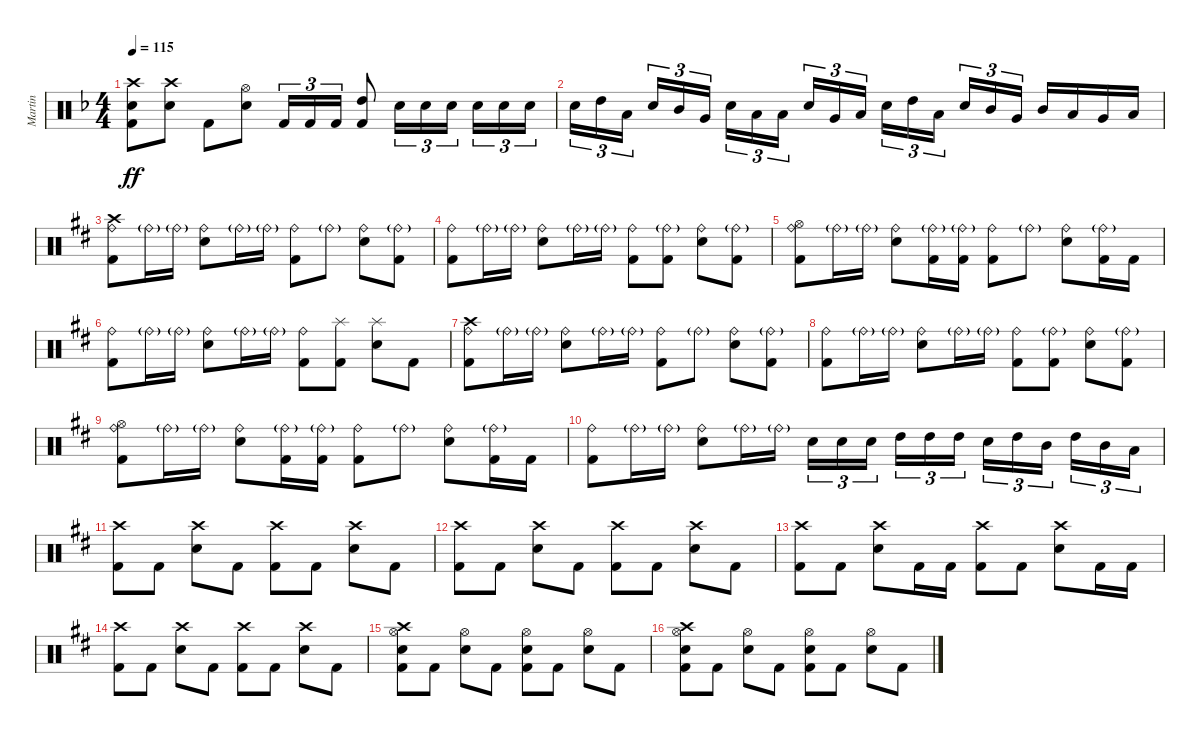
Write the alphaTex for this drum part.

\track ("Martin" "Martin") {instrument percussion}
\staff {score}
\articulation defaults
\ts (4 4)
\tempo 115
\clef neutral
\ks dminor
("Crash high (hit)" "Electric Snare (hit)" "Kick (hit) 2").8{dy ff} ("Crash high (hit)" "Electric Snare (hit)").8 "Kick (hit) 2".8 ("Hi-Hat (open)" "Electric Snare (hit)").8 "Kick (hit) 2".16{tu (3 2)} "Kick (hit) 2".16{tu (3 2)} "Kick (hit) 2".16{tu (3 2)} ("High Tom (hit)" "Kick (hit) 2").8 "Electric Snare (hit)".16{tu (3 2)} "Electric Snare (hit)".16{tu (3 2)} "Electric Snare (hit)".16{tu (3 2) beam splitsecondary} "Electric Snare (hit)".16{tu (3 2)} "Electric Snare (hit)".16{tu (3 2)} "Electric Snare (hit)".16{tu (3 2)} |
"Electric Snare (hit)".16{tu (3 2)} "High Tom (hit)".16{tu (3 2)} "Low Tom (hit)".16{tu (3 2) beam splitsecondary} "Electric Snare (hit)".16{tu (3 2)} "Mid Tom (hit)".16{tu (3 2)} "Very Low Tom (hit)".16{tu (3 2)} "Electric Snare (hit)".16{tu (3 2)} "Low Tom (hit)".16{tu (3 2)} "Low Floor Tom (hit)".16{tu (3 2) beam splitsecondary} "Electric Snare (hit)".16{tu (3 2)} "Very Low Tom (hit)".16{tu (3 2)} "Low Floor Tom (hit)".16{tu (3 2)} "Electric Snare (hit)".16{tu (3 2)} "High Tom (hit)".16{tu (3 2)} "Low Tom (hit)".16{tu (3 2) beam splitsecondary} "Electric Snare (hit)".16{tu (3 2)} "Mid Tom (hit)".16{tu (3 2)} "Very Low Tom (hit)".16{tu (3 2)} "Mid Tom (hit)".16 "Low Tom (hit)".16 "Very Low Tom (hit)".16 "Low Floor Tom (hit)".16 |
\ks bminor
("Crash high (hit)" "Ride (bell)" "Kick (hit) 2").8 "Ride (bell)"{g}.16 "Ride (bell)"{g}.16 ("Ride (bell)" "Electric Snare (hit)").8 "Ride (bell)"{g}.16 "Ride (bell)"{g}.16 ("Ride (bell)" "Kick (hit) 2").8 "Ride (bell)"{g}.8 ("Ride (bell)" "Electric Snare (hit)").8 ("Ride (bell)"{g} "Kick (hit) 2").8 |
("Ride (bell)" "Kick (hit) 2").8 "Ride (bell)"{g}.16 "Ride (bell)"{g}.16 ("Ride (bell)" "Electric Snare (hit)").8 "Ride (bell)"{g}.16 "Ride (bell)"{g}.16 ("Ride (bell)" "Kick (hit) 2").8 ("Ride (bell)"{g} "Kick (hit) 2").8 ("Ride (bell)" "Electric Snare (hit)").8 ("Ride (bell)"{g} "Kick (hit) 2").8 |
("Hi-Hat (open)" "Ride (bell)" "Kick (hit) 2").8 "Ride (bell)"{g}.16 "Ride (bell)"{g}.16 ("Ride (bell)" "Electric Snare (hit)").8 ("Ride (bell)"{g} "Kick (hit) 2").16 ("Ride (bell)"{g} "Kick (hit) 2").16 ("Ride (bell)" "Kick (hit) 2").8 "Ride (bell)"{g}.8 ("Ride (bell)" "Electric Snare (hit)").8 ("Ride (bell)"{g} "Kick (hit) 2").16 "Kick (hit) 2".16 |
("Ride (bell)" "Kick (hit) 2").8 "Ride (bell)"{g}.16 "Ride (bell)"{g}.16 ("Ride (bell)" "Electric Snare (hit)").8 "Ride (bell)"{g}.16 "Ride (bell)"{g}.16 ("Ride (bell)" "Kick (hit) 2").8 ("Splash (hit)" "Kick (hit) 2").8 ("Splash (hit)" "Electric Snare (hit)").8 "Kick (hit) 2".8 |
("Crash high (hit)" "Ride (bell)" "Kick (hit) 2").8 "Ride (bell)"{g}.16 "Ride (bell)"{g}.16 ("Ride (bell)" "Electric Snare (hit)").8 "Ride (bell)"{g}.16 "Ride (bell)"{g}.16 ("Ride (bell)" "Kick (hit) 2").8 "Ride (bell)"{g}.8 ("Ride (bell)" "Electric Snare (hit)").8 ("Ride (bell)"{g} "Kick (hit) 2").8 |
("Ride (bell)" "Kick (hit) 2").8 "Ride (bell)"{g}.16 "Ride (bell)"{g}.16 ("Ride (bell)" "Electric Snare (hit)").8 "Ride (bell)"{g}.16 "Ride (bell)"{g}.16 ("Ride (bell)" "Kick (hit) 2").8 ("Ride (bell)"{g} "Kick (hit) 2").8 ("Ride (bell)" "Electric Snare (hit)").8 ("Ride (bell)"{g} "Kick (hit) 2").8 |
("Hi-Hat (open)" "Ride (bell)" "Kick (hit) 2").8 "Ride (bell)"{g}.16 "Ride (bell)"{g}.16 ("Ride (bell)" "Electric Snare (hit)").8 ("Ride (bell)"{g} "Kick (hit) 2").16 ("Ride (bell)"{g} "Kick (hit) 2").16 ("Ride (bell)" "Kick (hit) 2").8 "Ride (bell)"{g}.8 ("Ride (bell)" "Electric Snare (hit)").8 ("Ride (bell)"{g} "Kick (hit) 2").16 "Kick (hit) 2".16 |
("Ride (bell)" "Kick (hit) 2").8 "Ride (bell)"{g}.16 "Ride (bell)"{g}.16 ("Ride (bell)" "Electric Snare (hit)").8 "Ride (bell)"{g}.16 "Ride (bell)"{g}.16 "Electric Snare (hit)".16{tu (3 2)} "Electric Snare (hit)".16{tu (3 2)} "Electric Snare (hit)".16{tu (3 2) beam splitsecondary} "High Tom (hit)".16{tu (3 2)} "High Tom (hit)".16{tu (3 2)} "High Tom (hit)".16{tu (3 2)} "Electric Snare (hit)".16{tu (3 2)} "High Tom (hit)".16{tu (3 2)} "Mid Tom (hit)".16{tu (3 2) beam splitsecondary} "High Tom (hit)".16{tu (3 2)} "Mid Tom (hit)".16{tu (3 2)} "Low Tom (hit)".16{tu (3 2)} |
("Crash high (hit)" "Kick (hit) 2").8 "Kick (hit) 2".8 ("Crash high (hit)" "Electric Snare (hit)").8 "Kick (hit) 2".8 ("Crash high (hit)" "Kick (hit) 2").8 "Kick (hit) 2".8 ("Crash high (hit)" "Electric Snare (hit)").8 "Kick (hit) 2".8 |
("Crash high (hit)" "Kick (hit) 2").8 "Kick (hit) 2".8 ("Crash high (hit)" "Electric Snare (hit)").8 "Kick (hit) 2".8 ("Crash high (hit)" "Kick (hit) 2").8 "Kick (hit) 2".8 ("Crash high (hit)" "Electric Snare (hit)").8 "Kick (hit) 2".8 |
("Crash high (hit)" "Kick (hit) 2").8 "Kick (hit) 2".8 ("Crash high (hit)" "Electric Snare (hit)").8 "Kick (hit) 2".16 "Kick (hit) 2".16 ("Crash high (hit)" "Kick (hit) 2").8 "Kick (hit) 2".8 ("Crash high (hit)" "Electric Snare (hit)").8 "Kick (hit) 2".16 "Kick (hit) 2".16 |
("Crash high (hit)" "Kick (hit) 2").8 "Kick (hit) 2".8 ("Crash high (hit)" "Electric Snare (hit)").8 "Kick (hit) 2".8 ("Crash high (hit)" "Kick (hit) 2").8 "Kick (hit) 2".8 ("Crash high (hit)" "Electric Snare (hit)").8 "Kick (hit) 2".8 |
("Crash high (hit)" "Hi-Hat (open)" "Electric Snare (hit)" "Kick (hit) 2").8 "Kick (hit) 2".8 ("Hi-Hat (open)" "Electric Snare (hit)").8 "Kick (hit) 2".8 ("Hi-Hat (open)" "Electric Snare (hit)" "Kick (hit) 2").8 "Kick (hit) 2".8 ("Hi-Hat (open)" "Electric Snare (hit)").8 "Kick (hit) 2".8 |
("Crash high (hit)" "Hi-Hat (open)" "Electric Snare (hit)" "Kick (hit) 2").8 "Kick (hit) 2".8 ("Hi-Hat (open)" "Electric Snare (hit)").8 "Kick (hit) 2".8 ("Hi-Hat (open)" "Electric Snare (hit)" "Kick (hit) 2").8 "Kick (hit) 2".8 ("Hi-Hat (open)" "Electric Snare (hit)").8 "Kick (hit) 2".8
